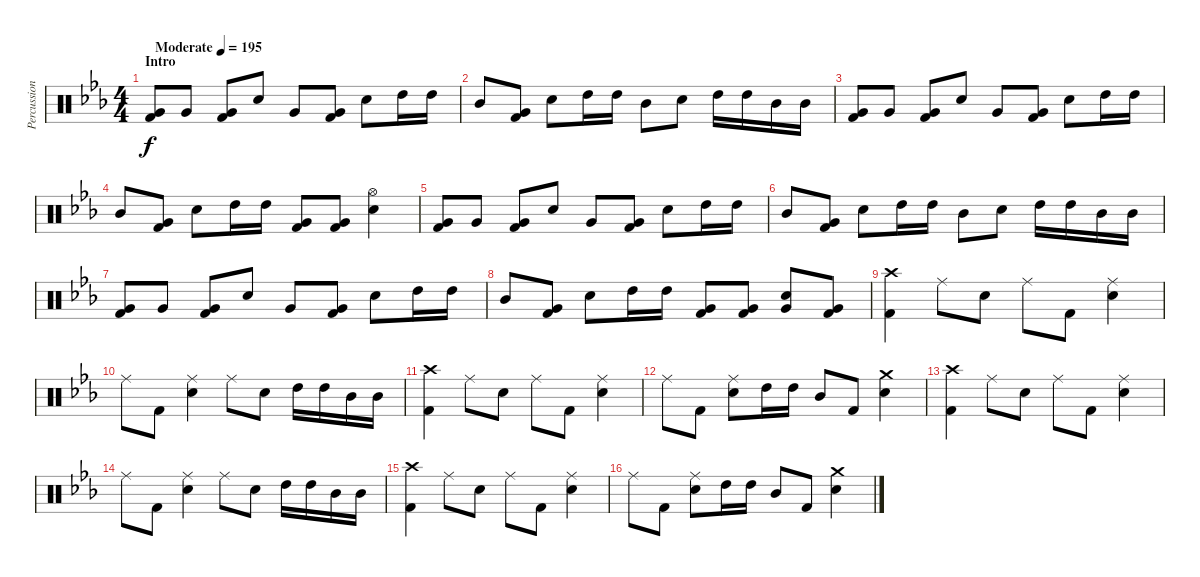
\track ("Percussion" "Percussion") {instrument percussion}
\staff {score}
\articulation defaults
\ts (4 4)
\section ("" "Intro")
\tempo (195 "Moderate")
\clef neutral
\ks eb
("Very Low Tom (hit)" "Kick (hit) 2").8{dy f} "Very Low Tom (hit)".8 ("Very Low Tom (hit)" "Kick (hit) 2").8 "Snare (hit) 2".8 "Very Low Tom (hit)".8 ("Very Low Tom (hit)" "Kick (hit) 2").8 "Snare (hit) 2".8 "High Tom (hit)".16 "High Tom (hit)".16 |
"Mid Tom (hit)".8 ("Very Low Tom (hit)" "Kick (hit) 2").8 "Snare (hit) 2".8 "High Tom (hit)".16 "High Tom (hit)".16 "Mid Tom (hit)".8 "Snare (hit) 2".8 "High Tom (hit)".16 "High Tom (hit)".16 "Mid Tom (hit)".16 "Mid Tom (hit)".16 |
("Very Low Tom (hit)" "Kick (hit) 2").8 "Very Low Tom (hit)".8 ("Very Low Tom (hit)" "Kick (hit) 2").8 "Snare (hit) 2".8 "Very Low Tom (hit)".8 ("Very Low Tom (hit)" "Kick (hit) 2").8 "Snare (hit) 2".8 "High Tom (hit)".16 "High Tom (hit)".16 |
"Mid Tom (hit)".8 ("Very Low Tom (hit)" "Kick (hit) 2").8 "Snare (hit) 2".8 "High Tom (hit)".16 "High Tom (hit)".16 ("Very Low Tom (hit)" "Kick (hit) 2").8 ("Very Low Tom (hit)" "Kick (hit) 2").8 ("Hi-Hat (open)" "Snare (hit) 2").4 |
("Very Low Tom (hit)" "Kick (hit) 2").8 "Very Low Tom (hit)".8 ("Very Low Tom (hit)" "Kick (hit) 2").8 "Snare (hit) 2".8 "Very Low Tom (hit)".8 ("Very Low Tom (hit)" "Kick (hit) 2").8 "Snare (hit) 2".8 "High Tom (hit)".16 "High Tom (hit)".16 |
"Mid Tom (hit)".8 ("Very Low Tom (hit)" "Kick (hit) 2").8 "Snare (hit) 2".8 "High Tom (hit)".16 "High Tom (hit)".16 "Mid Tom (hit)".8 "Snare (hit) 2".8 "High Tom (hit)".16 "High Tom (hit)".16 "Mid Tom (hit)".16 "Mid Tom (hit)".16 |
("Very Low Tom (hit)" "Kick (hit) 2").8 "Very Low Tom (hit)".8 ("Very Low Tom (hit)" "Kick (hit) 2").8 "Snare (hit) 2".8 "Very Low Tom (hit)".8 ("Very Low Tom (hit)" "Kick (hit) 2").8 "Snare (hit) 2".8 "High Tom (hit)".16 "High Tom (hit)".16 |
"Mid Tom (hit)".8 ("Very Low Tom (hit)" "Kick (hit) 2").8 "Snare (hit) 2".8 "High Tom (hit)".16 "High Tom (hit)".16 ("Very Low Tom (hit)" "Kick (hit) 2").8 ("Very Low Tom (hit)" "Kick (hit) 2").8 ("Very Low Tom (hit)" "Snare (hit) 2").8 ("Very Low Tom (hit)" "Kick (hit) 2").8 |
("Crash high (hit)" "Kick (hit) 2").4 "Ride (middle)".8 "Snare (hit) 2".8 "Ride (middle)".8 "Kick (hit) 2".8 ("Ride (middle)" "Snare (hit) 2").4 |
"Ride (middle)".8 "Kick (hit) 2".8 ("Ride (middle)" "Snare (hit) 2").4 "Ride (middle)".8 "Snare (hit) 2".8 "High Tom (hit)".16 "High Tom (hit)".16 "Mid Tom (hit)".16 "Mid Tom (hit)".16 |
("Crash high (hit)" "Kick (hit) 2").4 "Ride (middle)".8 "Snare (hit) 2".8 "Ride (middle)".8 "Kick (hit) 2".8 ("Ride (middle)" "Snare (hit) 2").4 |
"Ride (middle)".8 "Kick (hit) 2".8 ("Ride (middle)" "Snare (hit) 2").8 "High Tom (hit)".16 "High Tom (hit)".16 "Mid Tom (hit)".8 "Kick (hit) 2".8 ("Crash medium (hit)" "Snare (hit) 2").4 |
("Crash high (hit)" "Kick (hit) 2").4 "Ride (middle)".8 "Snare (hit) 2".8 "Ride (middle)".8 "Kick (hit) 2".8 ("Ride (middle)" "Snare (hit) 2").4 |
"Ride (middle)".8 "Kick (hit) 2".8 ("Ride (middle)" "Snare (hit) 2").4 "Ride (middle)".8 "Snare (hit) 2".8 "High Tom (hit)".16 "High Tom (hit)".16 "Mid Tom (hit)".16 "Mid Tom (hit)".16 |
("Crash high (hit)" "Kick (hit) 2").4 "Ride (middle)".8 "Snare (hit) 2".8 "Ride (middle)".8 "Kick (hit) 2".8 ("Ride (middle)" "Snare (hit) 2").4 |
"Ride (middle)".8 "Kick (hit) 2".8 ("Ride (middle)" "Snare (hit) 2").8 "High Tom (hit)".16 "High Tom (hit)".16 "Mid Tom (hit)".8 "Kick (hit) 2".8 ("Crash medium (hit)" "Snare (hit) 2").4
